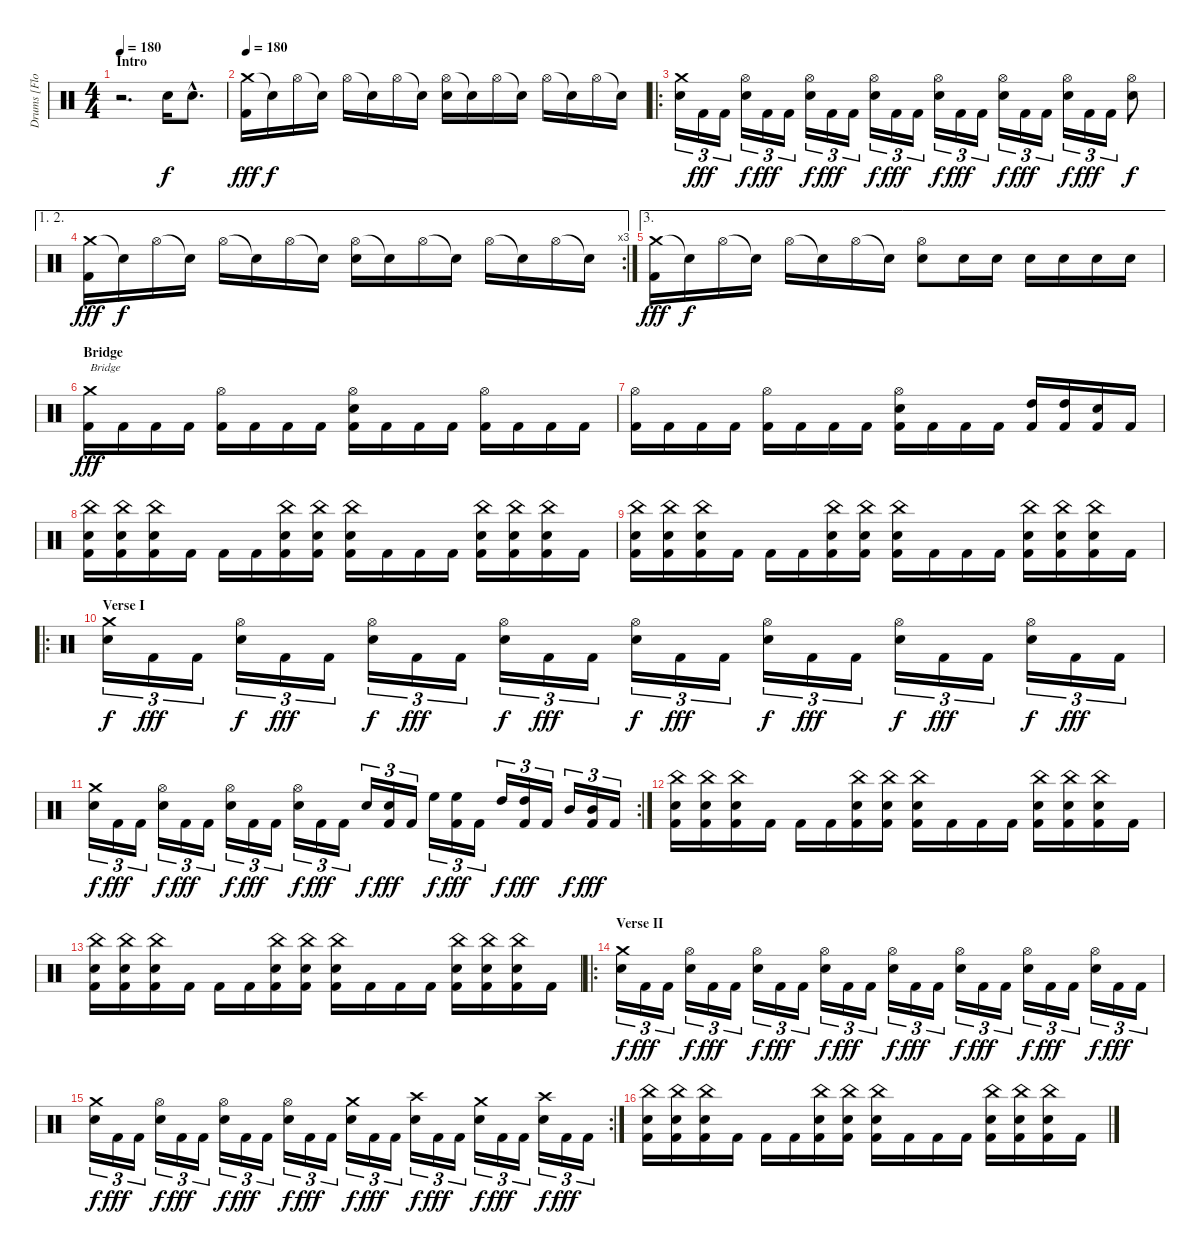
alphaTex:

\track ("Drums [Flo Mounier]" "Drums [Flo") {instrument percussion}
\staff {score}
\articulation defaults
\ts (4 4)
\section ("" "Intro")
\tempo 180
\tempo 150
\tempo 180
\clef neutral
\ks c
r.2{d dy f} "Electric Snare (hit)".16 "Electric Snare (hit)"{hac}.8{d} |
\tempo 180
("Crash medium (hit)" "Kick (hit) 2").16{dy fff} "Snare (hit)"{t}.16{dy f} "Hi-Hat (open)".16 "Snare (hit)"{t}.16 "Hi-Hat (open)".16 "Snare (hit)"{t}.16 "Hi-Hat (open)".16 "Snare (hit)"{t}.16 ("Hi-Hat (open)" "Electric Snare (hit)").16 "Snare (hit)"{t}.16 "Hi-Hat (open)".16 "Snare (hit)"{t}.16 "Hi-Hat (open)".16 "Snare (hit)"{t}.16 "Hi-Hat (open)".16 "Snare (hit)"{t}.16 |
\ro
("Crash medium (hit)" "Electric Snare (hit)").16{tu (3 2)} "Kick (hit) 2".16{tu (3 2) dy fff} "Kick (hit) 2".16{tu (3 2)} ("Hi-Hat (open)" "Electric Snare (hit)").16{tu (3 2) dy f} "Kick (hit) 2".16{tu (3 2) dy fff} "Kick (hit) 2".16{tu (3 2)} ("Hi-Hat (open)" "Electric Snare (hit)").16{tu (3 2) dy f} "Kick (hit) 2".16{tu (3 2) dy fff} "Kick (hit) 2".16{tu (3 2)} ("Hi-Hat (open)" "Electric Snare (hit)").16{tu (3 2) dy f} "Kick (hit) 2".16{tu (3 2) dy fff} "Kick (hit) 2".16{tu (3 2)} ("Hi-Hat (open)" "Electric Snare (hit)").16{tu (3 2) dy f} "Kick (hit) 2".16{tu (3 2) dy fff} "Kick (hit) 2".16{tu (3 2)} ("Hi-Hat (open)" "Electric Snare (hit)").16{tu (3 2) dy f} "Kick (hit) 2".16{tu (3 2) dy fff} "Kick (hit) 2".16{tu (3 2)} ("Hi-Hat (open)" "Electric Snare (hit)").16{tu (3 2) dy f} "Kick (hit) 2".16{tu (3 2) dy fff} "Kick (hit) 2".16{tu (3 2)} ("Hi-Hat (open)" "Electric Snare (hit)").8{dy f} |
\ae (1 2)
\rc 3
("Crash medium (hit)" "Kick (hit) 2").16{dy fff} "Snare (hit)"{t}.16{dy f} "Hi-Hat (open)".16 "Snare (hit)"{t}.16 "Hi-Hat (open)".16 "Snare (hit)"{t}.16 "Hi-Hat (open)".16 "Snare (hit)"{t}.16 ("Hi-Hat (open)" "Electric Snare (hit)").16 "Snare (hit)"{t}.16 "Hi-Hat (open)".16 "Snare (hit)"{t}.16 "Hi-Hat (open)".16 "Snare (hit)"{t}.16 "Hi-Hat (open)".16 "Snare (hit)"{t}.16 |
\ae 3
("Crash medium (hit)" "Kick (hit) 2").16{dy fff} "Snare (hit)"{t}.16{dy f} "Hi-Hat (open)".16 "Snare (hit)"{t}.16 "Hi-Hat (open)".16 "Snare (hit)"{t}.16 "Hi-Hat (open)".16 "Snare (hit)"{t}.16 ("Hi-Hat (open)" "Electric Snare (hit)").8 "Electric Snare (hit)".16 "Electric Snare (hit)".16 "Electric Snare (hit)".16 "Electric Snare (hit)".16 "Electric Snare (hit)".16 "Electric Snare (hit)".16 |
\section ("" "Bridge")
("Crash medium (hit)" "Kick (hit) 2").16{txt "Bridge" dy fff} "Kick (hit) 2".16 "Kick (hit) 2".16 "Kick (hit) 2".16 ("Hi-Hat (open)" "Kick (hit) 2").16 "Kick (hit) 2".16 "Kick (hit) 2".16 "Kick (hit) 2".16 ("Hi-Hat (open)" "Electric Snare (hit)" "Kick (hit) 2").16 "Kick (hit) 2".16 "Kick (hit) 2".16 "Kick (hit) 2".16 ("Hi-Hat (open)" "Kick (hit) 2").16 "Kick (hit) 2".16 "Kick (hit) 2".16 "Kick (hit) 2".16 |
("Hi-Hat (open)" "Kick (hit) 2").16 "Kick (hit) 2".16 "Kick (hit) 2".16 "Kick (hit) 2".16 ("Hi-Hat (open)" "Kick (hit) 2").16 "Kick (hit) 2".16 "Kick (hit) 2".16 "Kick (hit) 2".16 ("Hi-Hat (open)" "Electric Snare (hit)" "Kick (hit) 2").16 "Kick (hit) 2".16 "Kick (hit) 2".16 "Kick (hit) 2".16 ("High Tom (hit)" "Kick (hit) 2").16 ("High Tom (hit)" "Kick (hit) 2").16 ("Electric Snare (hit)" "Kick (hit) 2").16 "Kick (hit) 2".16 |
("China (hit)" "Electric Snare (hit)" "Kick (hit) 2").16 ("China (hit)" "Electric Snare (hit)" "Kick (hit) 2").16 ("China (hit)" "Electric Snare (hit)" "Kick (hit) 2").16 "Kick (hit) 2".16 "Kick (hit) 2".16 "Kick (hit) 2".16 ("China (hit)" "Electric Snare (hit)" "Kick (hit) 2").16 ("China (hit)" "Electric Snare (hit)" "Kick (hit) 2").16 ("China (hit)" "Electric Snare (hit)" "Kick (hit) 2").16 "Kick (hit) 2".16 "Kick (hit) 2".16 "Kick (hit) 2".16 ("China (hit)" "Electric Snare (hit)" "Kick (hit) 2").16 ("China (hit)" "Electric Snare (hit)" "Kick (hit) 2").16 ("China (hit)" "Electric Snare (hit)" "Kick (hit) 2").16 "Kick (hit) 2".16 |
("China (hit)" "Electric Snare (hit)" "Kick (hit) 2").16 ("China (hit)" "Electric Snare (hit)" "Kick (hit) 2").16 ("China (hit)" "Electric Snare (hit)" "Kick (hit) 2").16 "Kick (hit) 2".16 "Kick (hit) 2".16 "Kick (hit) 2".16 ("China (hit)" "Electric Snare (hit)" "Kick (hit) 2").16 ("China (hit)" "Electric Snare (hit)" "Kick (hit) 2").16 ("China (hit)" "Electric Snare (hit)" "Kick (hit) 2").16 "Kick (hit) 2".16 "Kick (hit) 2".16 "Kick (hit) 2".16 ("China (hit)" "Electric Snare (hit)" "Kick (hit) 2").16 ("China (hit)" "Electric Snare (hit)" "Kick (hit) 2").16 ("China (hit)" "Electric Snare (hit)" "Kick (hit) 2").16 "Kick (hit) 2".16 |
\ro
\section ("" "Verse I")
("Crash medium (hit)" "Electric Snare (hit)").16{tu (3 2) dy f} "Kick (hit) 2".16{tu (3 2) dy fff} "Kick (hit) 2".16{tu (3 2)} ("Hi-Hat (open)" "Electric Snare (hit)").16{tu (3 2) dy f} "Kick (hit) 2".16{tu (3 2) dy fff} "Kick (hit) 2".16{tu (3 2)} ("Hi-Hat (open)" "Electric Snare (hit)").16{tu (3 2) dy f} "Kick (hit) 2".16{tu (3 2) dy fff} "Kick (hit) 2".16{tu (3 2)} ("Hi-Hat (open)" "Electric Snare (hit)").16{tu (3 2) dy f} "Kick (hit) 2".16{tu (3 2) dy fff} "Kick (hit) 2".16{tu (3 2)} ("Hi-Hat (open)" "Electric Snare (hit)").16{tu (3 2) dy f} "Kick (hit) 2".16{tu (3 2) dy fff} "Kick (hit) 2".16{tu (3 2)} ("Hi-Hat (open)" "Electric Snare (hit)").16{tu (3 2) dy f} "Kick (hit) 2".16{tu (3 2) dy fff} "Kick (hit) 2".16{tu (3 2)} ("Hi-Hat (open)" "Electric Snare (hit)").16{tu (3 2) dy f} "Kick (hit) 2".16{tu (3 2) dy fff} "Kick (hit) 2".16{tu (3 2)} ("Hi-Hat (open)" "Electric Snare (hit)").16{tu (3 2) dy f} "Kick (hit) 2".16{tu (3 2) dy fff} "Kick (hit) 2".16{tu (3 2)} |
\rc 2
("Crash medium (hit)" "Electric Snare (hit)").16{tu (3 2) dy f} "Kick (hit) 2".16{tu (3 2) dy fff} "Kick (hit) 2".16{tu (3 2)} ("Hi-Hat (open)" "Electric Snare (hit)").16{tu (3 2) dy f} "Kick (hit) 2".16{tu (3 2) dy fff} "Kick (hit) 2".16{tu (3 2)} ("Hi-Hat (open)" "Electric Snare (hit)").16{tu (3 2) dy f} "Kick (hit) 2".16{tu (3 2) dy fff} "Kick (hit) 2".16{tu (3 2)} ("Hi-Hat (open)" "Electric Snare (hit)").16{tu (3 2) dy f} "Kick (hit) 2".16{tu (3 2) dy fff} "Kick (hit) 2".16{tu (3 2)} "Electric Snare (hit)".16{tu (3 2) dy f} ("Electric Snare (hit)" "Kick (hit) 2").16{tu (3 2) dy fff} "Kick (hit) 2".16{tu (3 2)} "High Floor Tom (hit)".16{tu (3 2) dy f} ("High Floor Tom (hit)" "Kick (hit) 2").16{tu (3 2) dy fff} "Kick (hit) 2".16{tu (3 2)} "High Tom (hit)".16{tu (3 2) dy f} ("High Tom (hit)" "Kick (hit) 2").16{tu (3 2) dy fff} "Kick (hit) 2".16{tu (3 2)} "Mid Tom (hit)".16{tu (3 2) dy f} ("Mid Tom (hit)" "Kick (hit) 2").16{tu (3 2) dy fff} "Kick (hit) 2".16{tu (3 2)} |
("China (hit)" "Electric Snare (hit)" "Kick (hit) 2").16 ("China (hit)" "Electric Snare (hit)" "Kick (hit) 2").16 ("China (hit)" "Electric Snare (hit)" "Kick (hit) 2").16 "Kick (hit) 2".16 "Kick (hit) 2".16 "Kick (hit) 2".16 ("China (hit)" "Electric Snare (hit)" "Kick (hit) 2").16 ("China (hit)" "Electric Snare (hit)" "Kick (hit) 2").16 ("China (hit)" "Electric Snare (hit)" "Kick (hit) 2").16 "Kick (hit) 2".16 "Kick (hit) 2".16 "Kick (hit) 2".16 ("China (hit)" "Electric Snare (hit)" "Kick (hit) 2").16 ("China (hit)" "Electric Snare (hit)" "Kick (hit) 2").16 ("China (hit)" "Electric Snare (hit)" "Kick (hit) 2").16 "Kick (hit) 2".16 |
("China (hit)" "Electric Snare (hit)" "Kick (hit) 2").16 ("China (hit)" "Electric Snare (hit)" "Kick (hit) 2").16 ("China (hit)" "Electric Snare (hit)" "Kick (hit) 2").16 "Kick (hit) 2".16 "Kick (hit) 2".16 "Kick (hit) 2".16 ("China (hit)" "Electric Snare (hit)" "Kick (hit) 2").16 ("China (hit)" "Electric Snare (hit)" "Kick (hit) 2").16 ("China (hit)" "Electric Snare (hit)" "Kick (hit) 2").16 "Kick (hit) 2".16 "Kick (hit) 2".16 "Kick (hit) 2".16 ("China (hit)" "Electric Snare (hit)" "Kick (hit) 2").16 ("China (hit)" "Electric Snare (hit)" "Kick (hit) 2").16 ("China (hit)" "Electric Snare (hit)" "Kick (hit) 2").16 "Kick (hit) 2".16 |
\ro
\section ("" "Verse II")
("Crash medium (hit)" "Electric Snare (hit)").16{tu (3 2) dy f} "Kick (hit) 2".16{tu (3 2) dy fff} "Kick (hit) 2".16{tu (3 2)} ("Hi-Hat (open)" "Electric Snare (hit)").16{tu (3 2) dy f} "Kick (hit) 2".16{tu (3 2) dy fff} "Kick (hit) 2".16{tu (3 2)} ("Hi-Hat (open)" "Electric Snare (hit)").16{tu (3 2) dy f} "Kick (hit) 2".16{tu (3 2) dy fff} "Kick (hit) 2".16{tu (3 2)} ("Hi-Hat (open)" "Electric Snare (hit)").16{tu (3 2) dy f} "Kick (hit) 2".16{tu (3 2) dy fff} "Kick (hit) 2".16{tu (3 2)} ("Hi-Hat (open)" "Electric Snare (hit)").16{tu (3 2) dy f} "Kick (hit) 2".16{tu (3 2) dy fff} "Kick (hit) 2".16{tu (3 2)} ("Hi-Hat (open)" "Electric Snare (hit)").16{tu (3 2) dy f} "Kick (hit) 2".16{tu (3 2) dy fff} "Kick (hit) 2".16{tu (3 2)} ("Hi-Hat (open)" "Electric Snare (hit)").16{tu (3 2) dy f} "Kick (hit) 2".16{tu (3 2) dy fff} "Kick (hit) 2".16{tu (3 2)} ("Hi-Hat (open)" "Electric Snare (hit)").16{tu (3 2) dy f} "Kick (hit) 2".16{tu (3 2) dy fff} "Kick (hit) 2".16{tu (3 2)} |
\rc 2
("Crash medium (hit)" "Electric Snare (hit)").16{tu (3 2) dy f} "Kick (hit) 2".16{tu (3 2) dy fff} "Kick (hit) 2".16{tu (3 2)} ("Hi-Hat (open)" "Electric Snare (hit)").16{tu (3 2) dy f} "Kick (hit) 2".16{tu (3 2) dy fff} "Kick (hit) 2".16{tu (3 2)} ("Hi-Hat (open)" "Electric Snare (hit)").16{tu (3 2) dy f} "Kick (hit) 2".16{tu (3 2) dy fff} "Kick (hit) 2".16{tu (3 2)} ("Hi-Hat (open)" "Electric Snare (hit)").16{tu (3 2) dy f} "Kick (hit) 2".16{tu (3 2) dy fff} "Kick (hit) 2".16{tu (3 2)} ("Crash medium (hit)" "Electric Snare (hit)").16{tu (3 2) dy f} "Kick (hit) 2".16{tu (3 2) dy fff} "Kick (hit) 2".16{tu (3 2)} ("Crash high (hit)" "Electric Snare (hit)").16{tu (3 2) dy f} "Kick (hit) 2".16{tu (3 2) dy fff} "Kick (hit) 2".16{tu (3 2)} ("Crash medium (hit)" "Electric Snare (hit)").16{tu (3 2) dy f} "Kick (hit) 2".16{tu (3 2) dy fff} "Kick (hit) 2".16{tu (3 2)} ("Crash high (hit)" "Electric Snare (hit)").16{tu (3 2) dy f} "Kick (hit) 2".16{tu (3 2) dy fff} "Kick (hit) 2".16{tu (3 2)} |
("China (hit)" "Electric Snare (hit)" "Kick (hit) 2").16 ("China (hit)" "Electric Snare (hit)" "Kick (hit) 2").16 ("China (hit)" "Electric Snare (hit)" "Kick (hit) 2").16 "Kick (hit) 2".16 "Kick (hit) 2".16 "Kick (hit) 2".16 ("China (hit)" "Electric Snare (hit)" "Kick (hit) 2").16 ("China (hit)" "Electric Snare (hit)" "Kick (hit) 2").16 ("China (hit)" "Electric Snare (hit)" "Kick (hit) 2").16 "Kick (hit) 2".16 "Kick (hit) 2".16 "Kick (hit) 2".16 ("China (hit)" "Electric Snare (hit)" "Kick (hit) 2").16 ("China (hit)" "Electric Snare (hit)" "Kick (hit) 2").16 ("China (hit)" "Electric Snare (hit)" "Kick (hit) 2").16 "Kick (hit) 2".16
